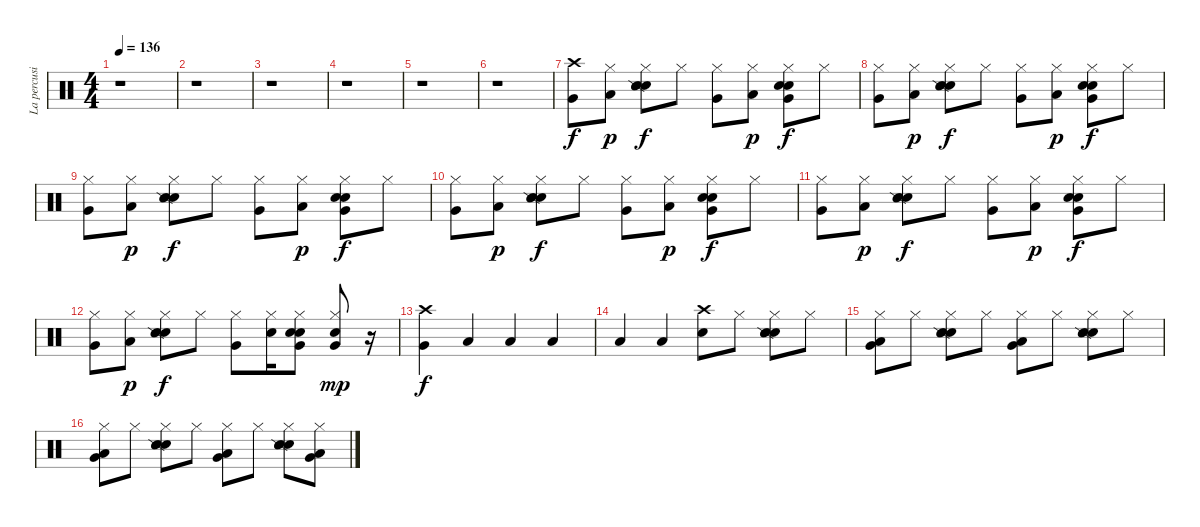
\track ("La percusión" "La percusi") {instrument percussion}
\staff {score}
\articulation defaults
\ts (4 4)
\tempo 136
\clef neutral
\ks c
r.1{dy f} |
r.1 |
r.1 |
r.1 |
r.1 |
r.1 |
("Crash high (hit)" "Very Low Tom (hit)").8 ("Hi-Hat (closed)" "Low Floor Tom (hit)").8{dy p} ("Hi-Hat (closed)" "Snare (hit) 2" "Snare (hit) 2" "Snare (side stick) 2").8{dy f} "Hi-Hat (closed)".8 ("Hi-Hat (closed)" "Very Low Tom (hit)").8 ("Hi-Hat (closed)" "Low Floor Tom (hit)").8{dy p} ("Hi-Hat (closed)" "Snare (hit) 2" "Snare (hit) 2" "Very Low Tom (hit)").8{dy f} "Hi-Hat (closed)".8 |
("Hi-Hat (closed)" "Very Low Tom (hit)").8 ("Hi-Hat (closed)" "Low Floor Tom (hit)").8{dy p} ("Hi-Hat (closed)" "Snare (hit) 2" "Snare (hit) 2" "Snare (side stick) 2").8{dy f} "Hi-Hat (closed)".8 ("Hi-Hat (closed)" "Very Low Tom (hit)").8 ("Hi-Hat (closed)" "Low Floor Tom (hit)").8{dy p} ("Hi-Hat (closed)" "Snare (hit) 2" "Snare (hit) 2" "Very Low Tom (hit)").8{dy f} "Hi-Hat (closed)".8 |
("Hi-Hat (closed)" "Very Low Tom (hit)").8 ("Hi-Hat (closed)" "Low Floor Tom (hit)").8{dy p} ("Hi-Hat (closed)" "Snare (hit) 2" "Snare (hit) 2" "Snare (side stick) 2").8{dy f} "Hi-Hat (closed)".8 ("Hi-Hat (closed)" "Very Low Tom (hit)").8 ("Hi-Hat (closed)" "Low Floor Tom (hit)").8{dy p} ("Hi-Hat (closed)" "Snare (hit) 2" "Snare (hit) 2" "Very Low Tom (hit)").8{dy f} "Hi-Hat (closed)".8 |
("Hi-Hat (closed)" "Very Low Tom (hit)").8 ("Hi-Hat (closed)" "Low Floor Tom (hit)").8{dy p} ("Hi-Hat (closed)" "Snare (hit) 2" "Snare (hit) 2" "Snare (side stick) 2").8{dy f} "Hi-Hat (closed)".8 ("Hi-Hat (closed)" "Very Low Tom (hit)").8 ("Hi-Hat (closed)" "Low Floor Tom (hit)").8{dy p} ("Hi-Hat (closed)" "Snare (hit) 2" "Snare (hit) 2" "Very Low Tom (hit)").8{dy f} "Hi-Hat (closed)".8 |
("Hi-Hat (closed)" "Very Low Tom (hit)").8 ("Hi-Hat (closed)" "Low Floor Tom (hit)").8{dy p} ("Hi-Hat (closed)" "Snare (hit) 2" "Snare (hit) 2" "Snare (side stick) 2").8{dy f} "Hi-Hat (closed)".8 ("Hi-Hat (closed)" "Very Low Tom (hit)").8 ("Hi-Hat (closed)" "Low Floor Tom (hit)").8{dy p} ("Hi-Hat (closed)" "Snare (hit) 2" "Snare (hit) 2" "Very Low Tom (hit)").8{dy f} "Hi-Hat (closed)".8 |
("Hi-Hat (closed)" "Very Low Tom (hit)").8 ("Hi-Hat (closed)" "Low Floor Tom (hit)").8{dy p} ("Hi-Hat (closed)" "Snare (hit) 2" "Snare (hit) 2" "Snare (side stick) 2").8{dy f} "Hi-Hat (closed)".8 ("Hi-Hat (closed)" "Very Low Tom (hit)").8 ("Hi-Hat (closed)" "Snare (hit) 2").16 ("Hi-Hat (closed)" "Snare (hit) 2" "Snare (hit) 2" "Very Low Tom (hit)").8 ("Hi-Hat (closed)" "Very Low Tom (hit)" "Snare (hit) 2").8{dy mp} r.16 |
("Crash high (hit)" "Very Low Tom (hit)").4{dy f} "Low Floor Tom (hit)".4 "Low Floor Tom (hit)".4 "Low Floor Tom (hit)".4 |
"Low Floor Tom (hit)".4 "Low Floor Tom (hit)".4 ("Crash high (hit)" "Snare (hit) 2").8 "Hi-Hat (closed)".8 ("Hi-Hat (closed)" "Snare (hit) 2" "Snare (hit) 2" "Snare (side stick) 2").8 "Hi-Hat (closed)".8 |
("Hi-Hat (closed)" "Low Floor Tom (hit)" "Very Low Tom (hit)").8 "Hi-Hat (closed)".8 ("Hi-Hat (closed)" "Snare (hit) 2" "Snare (hit) 2" "Snare (side stick) 2").8 "Hi-Hat (closed)".8 ("Hi-Hat (closed)" "Low Floor Tom (hit)" "Very Low Tom (hit)").8 "Hi-Hat (closed)".8 ("Hi-Hat (closed)" "Snare (hit) 2" "Snare (hit) 2" "Snare (side stick) 2").8 "Hi-Hat (closed)".8 |
("Hi-Hat (closed)" "Low Floor Tom (hit)" "Very Low Tom (hit)").8 "Hi-Hat (closed)".8 ("Hi-Hat (closed)" "Snare (hit) 2" "Snare (hit) 2" "Snare (side stick) 2").8 "Hi-Hat (closed)".8 ("Hi-Hat (closed)" "Low Floor Tom (hit)" "Very Low Tom (hit)").8 "Hi-Hat (closed)".8 ("Hi-Hat (closed)" "Snare (hit) 2" "Snare (hit) 2" "Snare (side stick) 2").8 ("Hi-Hat (closed)" "Low Floor Tom (hit)" "Very Low Tom (hit)").8
